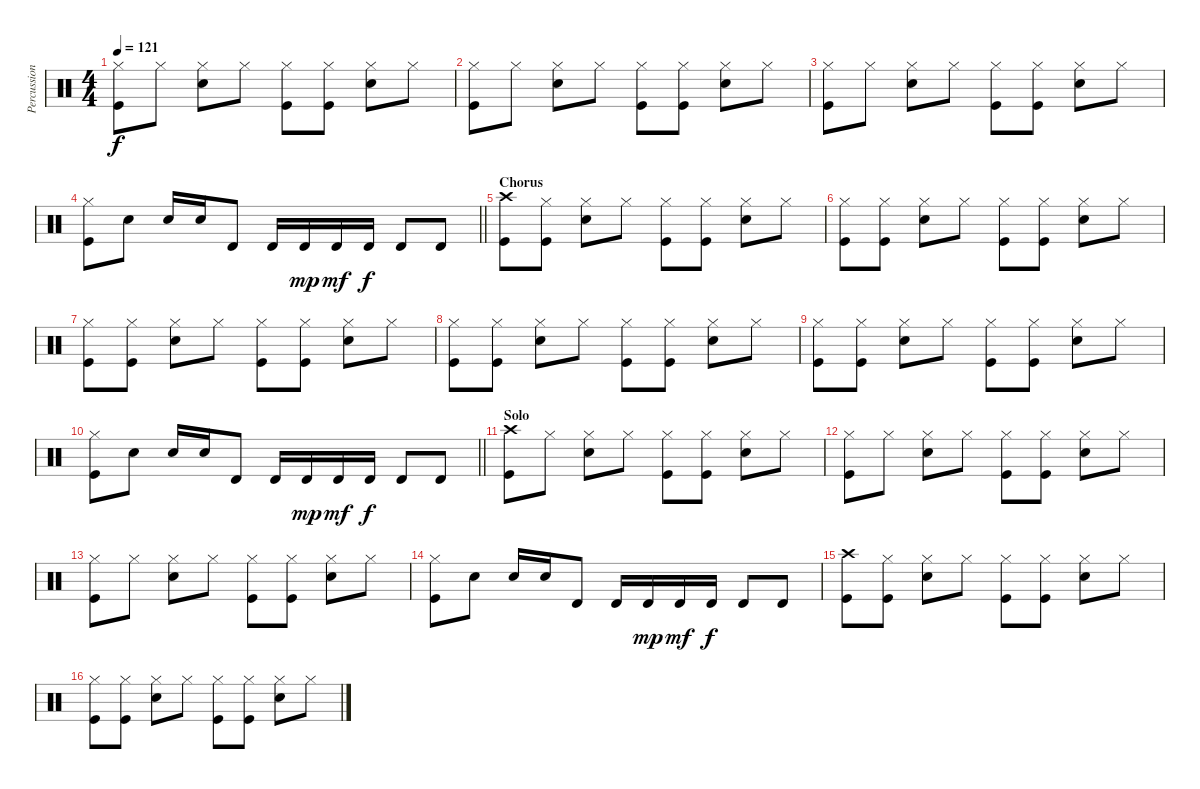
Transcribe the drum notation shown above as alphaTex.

\track ("Percussion" "Percussion") {instrument percussion}
\staff {score}
\articulation defaults
\ts (4 4)
\tempo 121
\clef neutral
\ks c
("Hi-Hat (closed)" "Kick (hit)").8{dy f} "Hi-Hat (closed)".8 ("Hi-Hat (closed)" "Snare (hit) 2").8 "Hi-Hat (closed)".8 ("Hi-Hat (closed)" "Kick (hit)").8 ("Hi-Hat (closed)" "Kick (hit)").8 ("Hi-Hat (closed)" "Snare (hit) 2").8 "Hi-Hat (closed)".8 |
("Hi-Hat (closed)" "Kick (hit)").8 "Hi-Hat (closed)".8 ("Hi-Hat (closed)" "Snare (hit) 2").8 "Hi-Hat (closed)".8 ("Hi-Hat (closed)" "Kick (hit)").8 ("Hi-Hat (closed)" "Kick (hit)").8 ("Hi-Hat (closed)" "Snare (hit) 2").8 "Hi-Hat (closed)".8 |
("Hi-Hat (closed)" "Kick (hit)").8 "Hi-Hat (closed)".8 ("Hi-Hat (closed)" "Snare (hit) 2").8 "Hi-Hat (closed)".8 ("Hi-Hat (closed)" "Kick (hit)").8 ("Hi-Hat (closed)" "Kick (hit)").8 ("Hi-Hat (closed)" "Snare (hit) 2").8 "Hi-Hat (closed)".8 |
\barLineRight lightlight
("Hi-Hat (closed)" "Kick (hit)").8 "Snare (hit) 2".8 "Snare (hit) 2".16 "Snare (hit) 2".16 "Timbale high (hit)".8 "Timbale high (hit)".16 "Timbale high (hit)".16{dy mp} "Timbale high (hit)".16{dy mf} "Timbale high (hit)".16{dy f} "Timbale high (hit)".8 "Timbale high (hit)".8 |
\section ("" "Chorus")
("Crash high (hit)" "Kick (hit)").8 ("Hi-Hat (closed)" "Kick (hit)").8 ("Hi-Hat (closed)" "Snare (hit) 2").8 "Hi-Hat (closed)".8 ("Hi-Hat (closed)" "Kick (hit)").8 ("Hi-Hat (closed)" "Kick (hit)").8 ("Hi-Hat (closed)" "Snare (hit) 2").8 "Hi-Hat (closed)".8 |
("Hi-Hat (closed)" "Kick (hit)").8 ("Hi-Hat (closed)" "Kick (hit)").8 ("Hi-Hat (closed)" "Snare (hit) 2").8 "Hi-Hat (closed)".8 ("Hi-Hat (closed)" "Kick (hit)").8 ("Hi-Hat (closed)" "Kick (hit)").8 ("Hi-Hat (closed)" "Snare (hit) 2").8 "Hi-Hat (closed)".8 |
("Hi-Hat (closed)" "Kick (hit)").8 ("Hi-Hat (closed)" "Kick (hit)").8 ("Hi-Hat (closed)" "Snare (hit) 2").8 "Hi-Hat (closed)".8 ("Hi-Hat (closed)" "Kick (hit)").8 ("Hi-Hat (closed)" "Kick (hit)").8 ("Hi-Hat (closed)" "Snare (hit) 2").8 "Hi-Hat (closed)".8 |
("Hi-Hat (closed)" "Kick (hit)").8 ("Hi-Hat (closed)" "Kick (hit)").8 ("Hi-Hat (closed)" "Snare (hit) 2").8 "Hi-Hat (closed)".8 ("Hi-Hat (closed)" "Kick (hit)").8 ("Hi-Hat (closed)" "Kick (hit)").8 ("Hi-Hat (closed)" "Snare (hit) 2").8 "Hi-Hat (closed)".8 |
("Hi-Hat (closed)" "Kick (hit)").8 ("Hi-Hat (closed)" "Kick (hit)").8 ("Hi-Hat (closed)" "Snare (hit) 2").8 "Hi-Hat (closed)".8 ("Hi-Hat (closed)" "Kick (hit)").8 ("Hi-Hat (closed)" "Kick (hit)").8 ("Hi-Hat (closed)" "Snare (hit) 2").8 "Hi-Hat (closed)".8 |
\barLineRight lightlight
("Hi-Hat (closed)" "Kick (hit)").8 "Snare (hit) 2".8 "Snare (hit) 2".16 "Snare (hit) 2".16 "Timbale high (hit)".8 "Timbale high (hit)".16 "Timbale high (hit)".16{dy mp} "Timbale high (hit)".16{dy mf} "Timbale high (hit)".16{dy f} "Timbale high (hit)".8 "Timbale high (hit)".8 |
\section ("" "Solo")
("Crash high (hit)" "Kick (hit)").8 "Hi-Hat (closed)".8 ("Hi-Hat (closed)" "Snare (hit) 2").8 "Hi-Hat (closed)".8 ("Hi-Hat (closed)" "Kick (hit)").8 ("Hi-Hat (closed)" "Kick (hit)").8 ("Hi-Hat (closed)" "Snare (hit) 2").8 "Hi-Hat (closed)".8 |
("Hi-Hat (closed)" "Kick (hit)").8 "Hi-Hat (closed)".8 ("Hi-Hat (closed)" "Snare (hit) 2").8 "Hi-Hat (closed)".8 ("Hi-Hat (closed)" "Kick (hit)").8 ("Hi-Hat (closed)" "Kick (hit)").8 ("Hi-Hat (closed)" "Snare (hit) 2").8 "Hi-Hat (closed)".8 |
("Hi-Hat (closed)" "Kick (hit)").8 "Hi-Hat (closed)".8 ("Hi-Hat (closed)" "Snare (hit) 2").8 "Hi-Hat (closed)".8 ("Hi-Hat (closed)" "Kick (hit)").8 ("Hi-Hat (closed)" "Kick (hit)").8 ("Hi-Hat (closed)" "Snare (hit) 2").8 "Hi-Hat (closed)".8 |
("Hi-Hat (closed)" "Kick (hit)").8 "Snare (hit) 2".8 "Snare (hit) 2".16 "Snare (hit) 2".16 "Timbale high (hit)".8 "Timbale high (hit)".16 "Timbale high (hit)".16{dy mp} "Timbale high (hit)".16{dy mf} "Timbale high (hit)".16{dy f} "Timbale high (hit)".8 "Timbale high (hit)".8 |
("Crash high (hit)" "Kick (hit)").8 ("Hi-Hat (closed)" "Kick (hit)").8 ("Hi-Hat (closed)" "Snare (hit) 2").8 "Hi-Hat (closed)".8 ("Hi-Hat (closed)" "Kick (hit)").8 ("Hi-Hat (closed)" "Kick (hit)").8 ("Hi-Hat (closed)" "Snare (hit) 2").8 "Hi-Hat (closed)".8 |
("Hi-Hat (closed)" "Kick (hit)").8 ("Hi-Hat (closed)" "Kick (hit)").8 ("Hi-Hat (closed)" "Snare (hit) 2").8 "Hi-Hat (closed)".8 ("Hi-Hat (closed)" "Kick (hit)").8 ("Hi-Hat (closed)" "Kick (hit)").8 ("Hi-Hat (closed)" "Snare (hit) 2").8 "Hi-Hat (closed)".8
